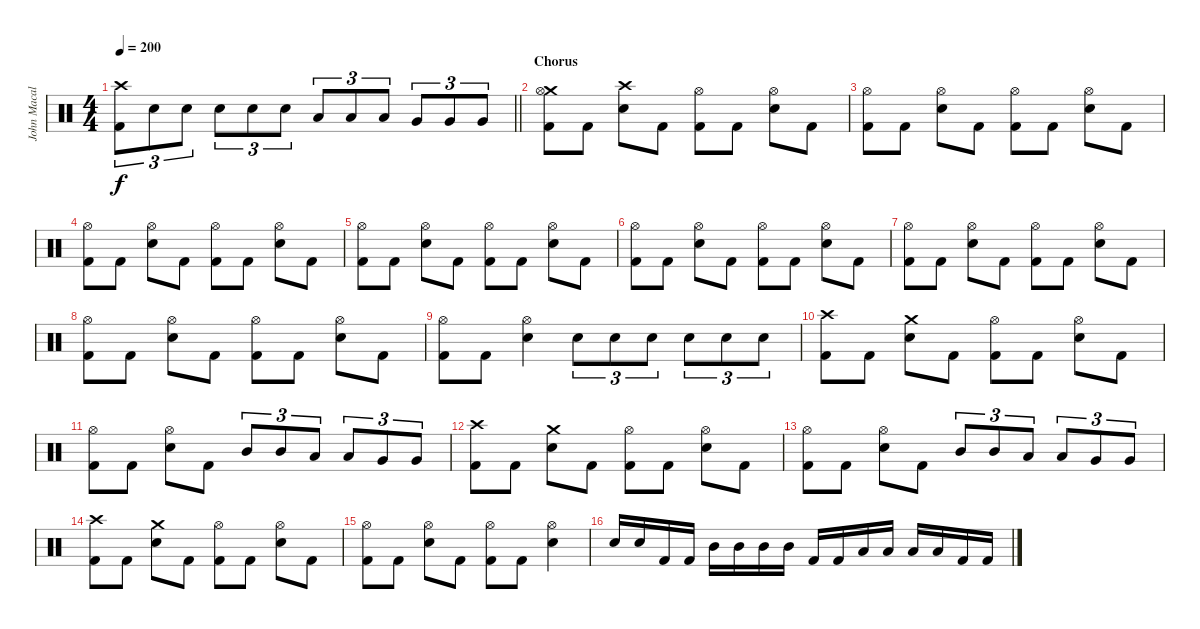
\track ("John Macaluso" "John Macal") {instrument percussion}
\staff {score}
\articulation defaults
\ts (4 4)
\tempo 200
\clef neutral
\barLineRight lightlight
\ks c
("Crash high (hit)" "Kick (hit) 2").8{tu (3 2) dy f} "Snare (hit) 2".8{tu (3 2)} "Snare (hit) 2".8{tu (3 2)} "Snare (hit) 2".8{tu (3 2)} "Snare (hit) 2".8{tu (3 2)} "Snare (hit) 2".8{tu (3 2)} "Low Tom (hit)".8{tu (3 2)} "Low Tom (hit)".8{tu (3 2)} "Low Tom (hit)".8{tu (3 2)} "Very Low Tom (hit)".8{tu (3 2)} "Very Low Tom (hit)".8{tu (3 2)} "Very Low Tom (hit)".8{tu (3 2)} |
\section ("" "Chorus")
("Crash medium (hit)" "Hi-Hat (open)" "Kick (hit) 2").8 "Kick (hit) 2".8 ("Crash high (hit)" "Snare (hit) 2").8 "Kick (hit) 2".8 ("Hi-Hat (open)" "Kick (hit) 2").8 "Kick (hit) 2".8 ("Hi-Hat (open)" "Snare (hit) 2").8 "Kick (hit) 2".8 |
("Hi-Hat (open)" "Kick (hit) 2").8 "Kick (hit) 2".8 ("Hi-Hat (open)" "Snare (hit) 2").8 "Kick (hit) 2".8 ("Hi-Hat (open)" "Kick (hit) 2").8 "Kick (hit) 2".8 ("Hi-Hat (open)" "Snare (hit) 2").8 "Kick (hit) 2".8 |
("Hi-Hat (open)" "Kick (hit) 2").8 "Kick (hit) 2".8 ("Hi-Hat (open)" "Snare (hit) 2").8 "Kick (hit) 2".8 ("Hi-Hat (open)" "Kick (hit) 2").8 "Kick (hit) 2".8 ("Hi-Hat (open)" "Snare (hit) 2").8 "Kick (hit) 2".8 |
("Hi-Hat (open)" "Kick (hit) 2").8 "Kick (hit) 2".8 ("Hi-Hat (open)" "Snare (hit) 2").8 "Kick (hit) 2".8 ("Hi-Hat (open)" "Kick (hit) 2").8 "Kick (hit) 2".8 ("Hi-Hat (open)" "Snare (hit) 2").8 "Kick (hit) 2".8 |
("Hi-Hat (open)" "Kick (hit) 2").8 "Kick (hit) 2".8 ("Hi-Hat (open)" "Snare (hit) 2").8 "Kick (hit) 2".8 ("Hi-Hat (open)" "Kick (hit) 2").8 "Kick (hit) 2".8 ("Hi-Hat (open)" "Snare (hit) 2").8 "Kick (hit) 2".8 |
("Hi-Hat (open)" "Kick (hit) 2").8 "Kick (hit) 2".8 ("Hi-Hat (open)" "Snare (hit) 2").8 "Kick (hit) 2".8 ("Hi-Hat (open)" "Kick (hit) 2").8 "Kick (hit) 2".8 ("Hi-Hat (open)" "Snare (hit) 2").8 "Kick (hit) 2".8 |
("Hi-Hat (open)" "Kick (hit) 2").8 "Kick (hit) 2".8 ("Hi-Hat (open)" "Snare (hit) 2").8 "Kick (hit) 2".8 ("Hi-Hat (open)" "Kick (hit) 2").8 "Kick (hit) 2".8 ("Hi-Hat (open)" "Snare (hit) 2").8 "Kick (hit) 2".8 |
("Hi-Hat (open)" "Kick (hit) 2").8 "Kick (hit) 2".8 ("Hi-Hat (open)" "Snare (hit) 2").4 "Snare (hit) 2".8{tu (3 2)} "Snare (hit) 2".8{tu (3 2)} "Snare (hit) 2".8{tu (3 2)} "Snare (hit) 2".8{tu (3 2)} "Snare (hit) 2".8{tu (3 2)} "Snare (hit) 2".8{tu (3 2)} |
("Crash high (hit)" "Kick (hit) 2").8 "Kick (hit) 2".8 ("Crash medium (hit)" "Snare (hit) 2").8 "Kick (hit) 2".8 ("Hi-Hat (open)" "Kick (hit) 2").8 "Kick (hit) 2".8 ("Hi-Hat (open)" "Snare (hit) 2").8 "Kick (hit) 2".8 |
("Hi-Hat (open)" "Kick (hit) 2").8 "Kick (hit) 2".8 ("Hi-Hat (open)" "Snare (hit) 2").8 "Kick (hit) 2".8 "Mid Tom (hit)".8{tu (3 2)} "Mid Tom (hit)".8{tu (3 2)} "Low Tom (hit)".8{tu (3 2)} "Low Tom (hit)".8{tu (3 2)} "Very Low Tom (hit)".8{tu (3 2)} "Very Low Tom (hit)".8{tu (3 2)} |
("Crash high (hit)" "Kick (hit) 2").8 "Kick (hit) 2".8 ("Crash medium (hit)" "Snare (hit) 2").8 "Kick (hit) 2".8 ("Hi-Hat (open)" "Kick (hit) 2").8 "Kick (hit) 2".8 ("Hi-Hat (open)" "Snare (hit) 2").8 "Kick (hit) 2".8 |
("Hi-Hat (open)" "Kick (hit) 2").8 "Kick (hit) 2".8 ("Hi-Hat (open)" "Snare (hit) 2").8 "Kick (hit) 2".8 "Mid Tom (hit)".8{tu (3 2)} "Mid Tom (hit)".8{tu (3 2)} "Low Tom (hit)".8{tu (3 2)} "Low Tom (hit)".8{tu (3 2)} "Very Low Tom (hit)".8{tu (3 2)} "Very Low Tom (hit)".8{tu (3 2)} |
("Crash high (hit)" "Kick (hit) 2").8 "Kick (hit) 2".8 ("Crash medium (hit)" "Snare (hit) 2").8 "Kick (hit) 2".8 ("Hi-Hat (open)" "Kick (hit) 2").8 "Kick (hit) 2".8 ("Hi-Hat (open)" "Snare (hit) 2").8 "Kick (hit) 2".8 |
("Hi-Hat (open)" "Kick (hit) 2").8 "Kick (hit) 2".8 ("Hi-Hat (open)" "Snare (hit) 2").8 "Kick (hit) 2".8 ("Hi-Hat (open)" "Kick (hit) 2").8 "Kick (hit) 2".8 ("Hi-Hat (open)" "Snare (hit) 2").4 |
"Snare (hit) 2".16 "Snare (hit) 2".16 "Kick (hit) 2".16 "Kick (hit) 2".16 "Mid Tom (hit)".16 "Mid Tom (hit)".16 "Mid Tom (hit)".16 "Mid Tom (hit)".16 "Kick (hit) 2".16 "Kick (hit) 2".16 "Low Tom (hit)".16 "Low Tom (hit)".16 "Low Tom (hit)".16 "Low Tom (hit)".16 "Kick (hit) 2".16 "Kick (hit) 2".16
